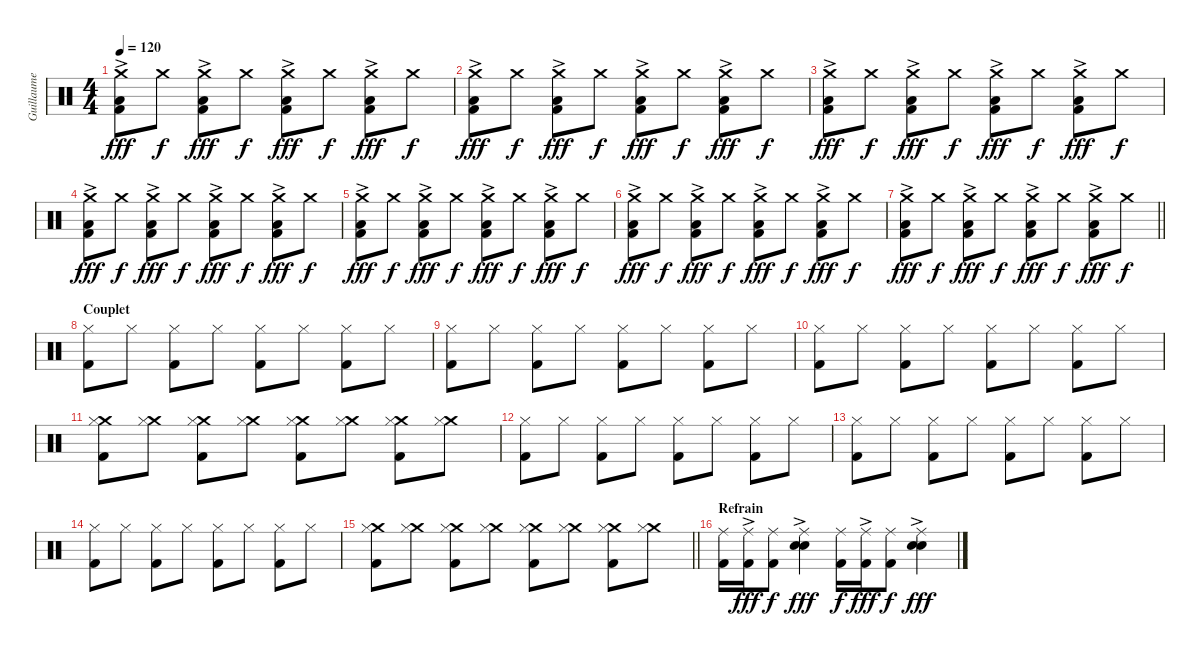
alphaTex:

\track ("Guillaume (batterie)" "Guillaume ") {instrument percussion}
\staff {score}
\articulation defaults
\ts (4 4)
\tempo 120
\clef neutral
\ks c
("Low Tom (hit)"{ac} "Crash medium (hit)" "Kick (hit) 2"{ac}).8{dy fff} "Crash medium (hit)".8{dy f} ("Low Tom (hit)"{ac} "Crash medium (hit)" "Kick (hit) 2"{ac}).8{dy fff} "Crash medium (hit)".8{dy f} ("Low Tom (hit)"{ac} "Crash medium (hit)" "Kick (hit) 2"{ac}).8{dy fff} "Crash medium (hit)".8{dy f} ("Low Tom (hit)"{ac} "Crash medium (hit)" "Kick (hit) 2"{ac}).8{dy fff} "Crash medium (hit)".8{dy f} |
("Low Tom (hit)"{ac} "Crash medium (hit)" "Kick (hit) 2"{ac}).8{dy fff} "Crash medium (hit)".8{dy f} ("Low Tom (hit)"{ac} "Crash medium (hit)" "Kick (hit) 2"{ac}).8{dy fff} "Crash medium (hit)".8{dy f} ("Low Tom (hit)"{ac} "Crash medium (hit)" "Kick (hit) 2"{ac}).8{dy fff} "Crash medium (hit)".8{dy f} ("Low Tom (hit)"{ac} "Crash medium (hit)" "Kick (hit) 2"{ac}).8{dy fff} "Crash medium (hit)".8{dy f} |
("Low Tom (hit)"{ac} "Crash medium (hit)" "Kick (hit) 2"{ac}).8{dy fff} "Crash medium (hit)".8{dy f} ("Low Tom (hit)"{ac} "Crash medium (hit)" "Kick (hit) 2"{ac}).8{dy fff} "Crash medium (hit)".8{dy f} ("Low Tom (hit)"{ac} "Crash medium (hit)" "Kick (hit) 2"{ac}).8{dy fff} "Crash medium (hit)".8{dy f} ("Low Tom (hit)"{ac} "Crash medium (hit)" "Kick (hit) 2"{ac}).8{dy fff} "Crash medium (hit)".8{dy f} |
("Low Tom (hit)"{ac} "Crash medium (hit)" "Kick (hit) 2"{ac}).8{dy fff} "Crash medium (hit)".8{dy f} ("Low Tom (hit)"{ac} "Crash medium (hit)" "Kick (hit) 2"{ac}).8{dy fff} "Crash medium (hit)".8{dy f} ("Low Tom (hit)"{ac} "Crash medium (hit)" "Kick (hit) 2"{ac}).8{dy fff} "Crash medium (hit)".8{dy f} ("Low Tom (hit)"{ac} "Crash medium (hit)" "Kick (hit) 2"{ac}).8{dy fff} "Crash medium (hit)".8{dy f} |
("Low Tom (hit)"{ac} "Crash medium (hit)" "Kick (hit) 2"{ac}).8{dy fff} "Crash medium (hit)".8{dy f} ("Low Tom (hit)"{ac} "Crash medium (hit)" "Kick (hit) 2"{ac}).8{dy fff} "Crash medium (hit)".8{dy f} ("Low Tom (hit)"{ac} "Crash medium (hit)" "Kick (hit) 2"{ac}).8{dy fff} "Crash medium (hit)".8{dy f} ("Low Tom (hit)"{ac} "Crash medium (hit)" "Kick (hit) 2"{ac}).8{dy fff} "Crash medium (hit)".8{dy f} |
("Low Tom (hit)"{ac} "Crash medium (hit)" "Kick (hit) 2"{ac}).8{dy fff} "Crash medium (hit)".8{dy f} ("Low Tom (hit)"{ac} "Crash medium (hit)" "Kick (hit) 2"{ac}).8{dy fff} "Crash medium (hit)".8{dy f} ("Low Tom (hit)"{ac} "Crash medium (hit)" "Kick (hit) 2"{ac}).8{dy fff} "Crash medium (hit)".8{dy f} ("Low Tom (hit)"{ac} "Crash medium (hit)" "Kick (hit) 2"{ac}).8{dy fff} "Crash medium (hit)".8{dy f} |
\barLineRight lightlight
("Low Tom (hit)"{ac} "Crash medium (hit)" "Kick (hit) 2"{ac}).8{dy fff} "Crash medium (hit)".8{dy f} ("Low Tom (hit)"{ac} "Crash medium (hit)" "Kick (hit) 2"{ac}).8{dy fff} "Crash medium (hit)".8{dy f} ("Low Tom (hit)"{ac} "Crash medium (hit)" "Kick (hit) 2"{ac}).8{dy fff} "Crash medium (hit)".8{dy f} ("Low Tom (hit)"{ac} "Crash medium (hit)" "Kick (hit) 2"{ac}).8{dy fff} "Crash medium (hit)".8{dy f} |
\section ("" "Couplet")
("Hi-Hat (closed)" "Kick (hit) 2").8{volume 9} "Hi-Hat (closed)".8 ("Hi-Hat (closed)" "Kick (hit) 2").8 "Hi-Hat (closed)".8 ("Hi-Hat (closed)" "Kick (hit) 2").8 "Hi-Hat (closed)".8 ("Hi-Hat (closed)" "Kick (hit) 2").8 "Hi-Hat (closed)".8 |
("Hi-Hat (closed)" "Kick (hit) 2").8 "Hi-Hat (closed)".8 ("Hi-Hat (closed)" "Kick (hit) 2").8 "Hi-Hat (closed)".8 ("Hi-Hat (closed)" "Kick (hit) 2").8 "Hi-Hat (closed)".8 ("Hi-Hat (closed)" "Kick (hit) 2").8 "Hi-Hat (closed)".8 |
("Hi-Hat (closed)" "Kick (hit) 2").8 "Hi-Hat (closed)".8 ("Hi-Hat (closed)" "Kick (hit) 2").8 "Hi-Hat (closed)".8 ("Hi-Hat (closed)" "Kick (hit) 2").8 "Hi-Hat (closed)".8 ("Hi-Hat (closed)" "Kick (hit) 2").8 "Hi-Hat (closed)".8 |
("Crash medium (hit)" "Hi-Hat (closed)" "Kick (hit) 2").8{volume 9} ("Crash medium (hit)" "Hi-Hat (closed)").8 ("Crash medium (hit)" "Hi-Hat (closed)" "Kick (hit) 2").8{volume 11} ("Crash medium (hit)" "Hi-Hat (closed)").8 ("Crash medium (hit)" "Hi-Hat (closed)" "Kick (hit) 2").8{volume 12} ("Crash medium (hit)" "Hi-Hat (closed)").8 ("Crash medium (hit)" "Hi-Hat (closed)" "Kick (hit) 2").8{volume 15} ("Crash medium (hit)" "Hi-Hat (closed)").8 |
("Hi-Hat (closed)" "Kick (hit) 2").8{volume 9} "Hi-Hat (closed)".8 ("Hi-Hat (closed)" "Kick (hit) 2").8 "Hi-Hat (closed)".8 ("Hi-Hat (closed)" "Kick (hit) 2").8 "Hi-Hat (closed)".8 ("Hi-Hat (closed)" "Kick (hit) 2").8 "Hi-Hat (closed)".8 |
("Hi-Hat (closed)" "Kick (hit) 2").8 "Hi-Hat (closed)".8 ("Hi-Hat (closed)" "Kick (hit) 2").8 "Hi-Hat (closed)".8 ("Hi-Hat (closed)" "Kick (hit) 2").8 "Hi-Hat (closed)".8 ("Hi-Hat (closed)" "Kick (hit) 2").8 "Hi-Hat (closed)".8 |
("Hi-Hat (closed)" "Kick (hit) 2").8 "Hi-Hat (closed)".8 ("Hi-Hat (closed)" "Kick (hit) 2").8 "Hi-Hat (closed)".8 ("Hi-Hat (closed)" "Kick (hit) 2").8 "Hi-Hat (closed)".8 ("Hi-Hat (closed)" "Kick (hit) 2").8 "Hi-Hat (closed)".8 |
\barLineRight lightlight
("Crash medium (hit)" "Hi-Hat (closed)" "Kick (hit) 2").8{volume 9} ("Crash medium (hit)" "Hi-Hat (closed)").8 ("Crash medium (hit)" "Hi-Hat (closed)" "Kick (hit) 2").8{volume 11} ("Crash medium (hit)" "Hi-Hat (closed)").8 ("Crash medium (hit)" "Hi-Hat (closed)" "Kick (hit) 2").8{volume 12} ("Crash medium (hit)" "Hi-Hat (closed)").8 ("Crash medium (hit)" "Hi-Hat (closed)" "Kick (hit) 2").8{volume 15} ("Crash medium (hit)" "Hi-Hat (closed)").8 |
\section ("" "Refrain")
("Ride (middle)" "Kick (hit) 2").16 ("Ride (middle)" "Kick (hit) 2"{ac}).16{dy fff} ("Ride (middle)" "Kick (hit) 2").8{dy f} ("Ride (middle)" "Snare (hit) 2"{ac} "Electric Snare (hit)"{ac}).4{dy fff} ("Ride (middle)" "Kick (hit) 2").16{dy f} ("Ride (middle)" "Kick (hit) 2"{ac}).16{dy fff} ("Ride (middle)" "Kick (hit) 2").8{dy f} ("Ride (middle)" "Snare (hit) 2"{ac} "Electric Snare (hit)"{ac}).4{dy fff}
